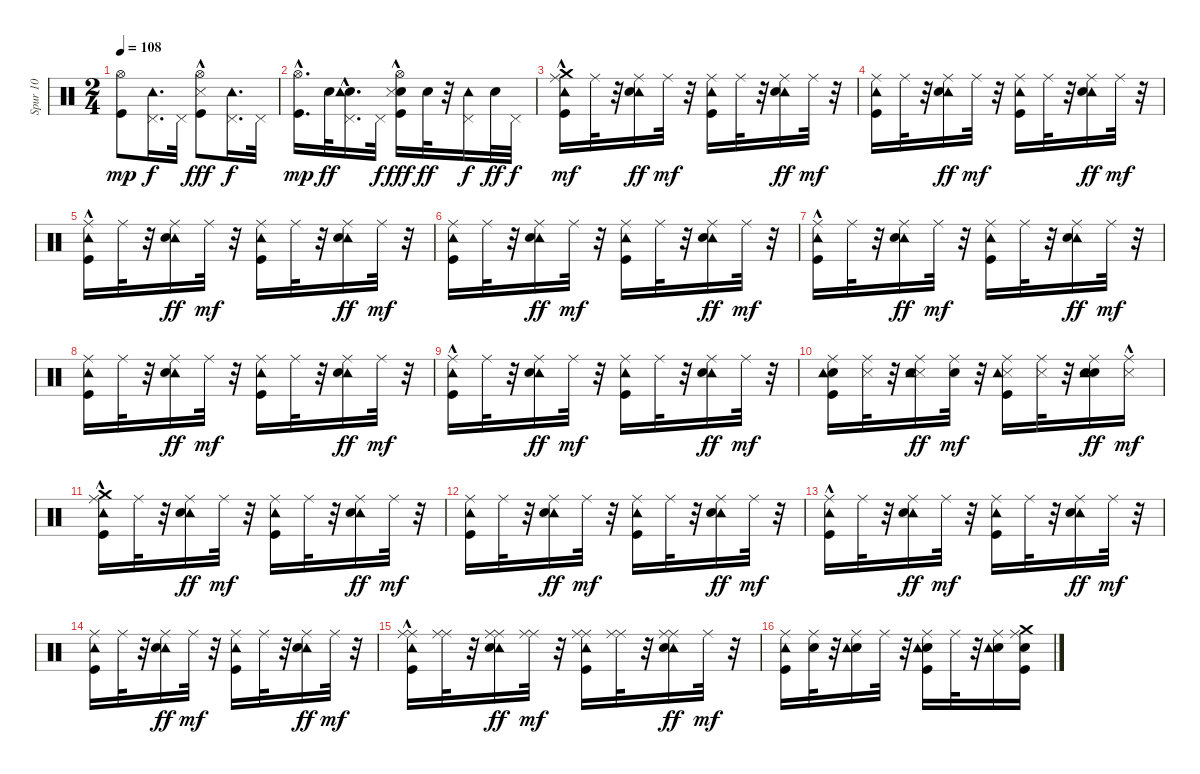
\track ("Spur 10" "Spur 10") {instrument percussion}
\staff {score}
\articulation defaults
\ts (2 4)
\tempo 108
\clef neutral
\ks c
("Hi-Hat (open)" "Kick (hit)").8{dy mp} ("Tambourine (hit)" "Pedal Hi-Hat (hit)").16{d dy f} "Pedal Hi-Hat (hit)".32 ("Hi-Hat (open)"{hac} "Kick (hit)" "Snare (side stick) 3"{hac}).8{dy fff} ("Tambourine (hit)" "Pedal Hi-Hat (hit)").16{d dy f} "Pedal Hi-Hat (hit)".32 |
("Hi-Hat (open)"{hac} "Kick (hit)").16{d dy mp} "Electric Snare (hit)".32{dy ff} ("Electric Snare (hit)"{hac} "Tambourine (hit)" "Pedal Hi-Hat (hit)").16{d} "Pedal Hi-Hat (hit)".32{dy f} ("Electric Snare (hit)" "Hi-Hat (open)" "Kick (hit)" "Snare (side stick) 3"{hac}).16{dy fff} "Electric Snare (hit)".32{dy ff} r.32 ("Tambourine (hit)" "Pedal Hi-Hat (hit)").16{dy f} "Electric Snare (hit)".32{dy ff} "Pedal Hi-Hat (hit)".32{dy f} |
("Crash medium (hit)" "Tambourine (hit)" "Ride (middle)" "Kick (hit)"{hac}).16{dy mf} "Ride (middle)".32 r.32 ("Tambourine (hit)" "Ride (middle)" "Electric Snare (hit)").16{dy ff} "Ride (middle)".32{dy mf} r.32 ("Tambourine (hit)" "Ride (middle)" "Kick (hit)").16 "Ride (middle)".32 r.32 ("Tambourine (hit)" "Ride (middle)" "Electric Snare (hit)").16{dy ff} "Ride (middle)".32{dy mf} r.32 |
("Tambourine (hit)" "Ride (middle)" "Kick (hit)").16 "Ride (middle)".32 r.32 ("Tambourine (hit)" "Ride (middle)" "Electric Snare (hit)").16{dy ff} "Ride (middle)".32{dy mf} r.32 ("Tambourine (hit)" "Ride (middle)" "Kick (hit)").16 "Ride (middle)".32 r.32 ("Tambourine (hit)" "Ride (middle)" "Electric Snare (hit)").16{dy ff} "Ride (middle)".32{dy mf} r.32 |
("Tambourine (hit)" "Ride (middle)" "Kick (hit)"{hac}).16 "Ride (middle)".32 r.32 ("Tambourine (hit)" "Ride (middle)" "Electric Snare (hit)").16{dy ff} "Ride (middle)".32{dy mf} r.32 ("Tambourine (hit)" "Ride (middle)" "Kick (hit)").16 "Ride (middle)".32 r.32 ("Tambourine (hit)" "Ride (middle)" "Electric Snare (hit)").16{dy ff} "Ride (middle)".32{dy mf} r.32 |
("Tambourine (hit)" "Ride (middle)" "Kick (hit)").16 "Ride (middle)".32 r.32 ("Tambourine (hit)" "Ride (middle)" "Electric Snare (hit)").16{dy ff} "Ride (middle)".32{dy mf} r.32 ("Tambourine (hit)" "Ride (middle)" "Kick (hit)").16 "Ride (middle)".32 r.32 ("Tambourine (hit)" "Ride (middle)" "Electric Snare (hit)").16{dy ff} "Ride (middle)".32{dy mf} r.32 |
("Tambourine (hit)" "Ride (middle)" "Kick (hit)"{hac}).16 "Ride (middle)".32 r.32 ("Tambourine (hit)" "Ride (middle)" "Electric Snare (hit)").16{dy ff} "Ride (middle)".32{dy mf} r.32 ("Tambourine (hit)" "Ride (middle)" "Kick (hit)").16 "Ride (middle)".32 r.32 ("Tambourine (hit)" "Ride (middle)" "Electric Snare (hit)").16{dy ff} "Ride (middle)".32{dy mf} r.32 |
("Tambourine (hit)" "Ride (middle)" "Kick (hit)").16 "Ride (middle)".32 r.32 ("Tambourine (hit)" "Ride (middle)" "Electric Snare (hit)").16{dy ff} "Ride (middle)".32{dy mf} r.32 ("Tambourine (hit)" "Ride (middle)" "Kick (hit)").16 "Ride (middle)".32 r.32 ("Tambourine (hit)" "Ride (middle)" "Electric Snare (hit)").16{dy ff} "Ride (middle)".32{dy mf} r.32 |
("Tambourine (hit)" "Ride (middle)" "Kick (hit)"{hac}).16 "Ride (middle)".32 r.32 ("Tambourine (hit)" "Ride (middle)" "Electric Snare (hit)").16{dy ff} "Ride (middle)".32{dy mf} r.32 ("Tambourine (hit)" "Ride (middle)" "Kick (hit)").16 "Ride (middle)".32 r.32 ("Tambourine (hit)" "Ride (middle)" "Electric Snare (hit)").16{dy ff} "Ride (middle)".32{dy mf} r.32 |
("Electric Snare (hit)" "Tambourine (hit)" "Ride (middle)" "Kick (hit)").16 ("Snare (side stick) 3" "Ride (middle)").32 r.32 ("Snare (side stick) 3" "Tambourine (hit)" "Ride (middle)" "Electric Snare (hit)").16{dy ff} ("Electric Snare (hit)" "Ride (middle)").32{dy mf} r.32 ("Snare (side stick) 3" "Tambourine (hit)" "Ride (middle)" "Kick (hit)").16 ("Snare (side stick) 3" "Ride (middle)").32 r.32 ("Electric Snare (hit)" "Tambourine (hit)" "Ride (middle)" "Electric Snare (hit)").16{dy ff} ("Snare (side stick) 3"{hac} "Ride (middle)").16{dy mf} |
("Crash medium (hit)" "Tambourine (hit)" "Ride (middle)" "Kick (hit)"{hac}).16 "Ride (middle)".32 r.32 ("Tambourine (hit)" "Ride (middle)" "Electric Snare (hit)").16{dy ff} "Ride (middle)".32{dy mf} r.32 ("Tambourine (hit)" "Ride (middle)" "Kick (hit)").16 "Ride (middle)".32 r.32 ("Tambourine (hit)" "Ride (middle)" "Electric Snare (hit)").16{dy ff} "Ride (middle)".32{dy mf} r.32 |
("Tambourine (hit)" "Ride (middle)" "Kick (hit)").16 "Ride (middle)".32 r.32 ("Tambourine (hit)" "Ride (middle)" "Electric Snare (hit)").16{dy ff} "Ride (middle)".32{dy mf} r.32 ("Tambourine (hit)" "Ride (middle)" "Kick (hit)").16 "Ride (middle)".32 r.32 ("Tambourine (hit)" "Ride (middle)" "Electric Snare (hit)").16{dy ff} "Ride (middle)".32{dy mf} r.32 |
("Tambourine (hit)" "Ride (middle)" "Kick (hit)"{hac}).16 "Ride (middle)".32 r.32 ("Tambourine (hit)" "Ride (middle)" "Electric Snare (hit)").16{dy ff} "Ride (middle)".32{dy mf} r.32 ("Tambourine (hit)" "Ride (middle)" "Kick (hit)").16 "Ride (middle)".32 r.32 ("Tambourine (hit)" "Ride (middle)" "Electric Snare (hit)").16{dy ff} "Ride (middle)".32{dy mf} r.32 |
("Tambourine (hit)" "Ride (middle)" "Kick (hit)").16 "Ride (middle)".32 r.32 ("Tambourine (hit)" "Ride (middle)" "Electric Snare (hit)").16{dy ff} "Ride (middle)".32{dy mf} r.32 ("Tambourine (hit)" "Ride (middle)" "Kick (hit)").16 "Ride (middle)".32 r.32 ("Tambourine (hit)" "Ride (middle)" "Electric Snare (hit)").16{dy ff} "Ride (middle)".32{dy mf} r.32 |
("Ride (middle)" "Tambourine (hit)" "Ride (middle)" "Kick (hit)"{hac}).16 ("Ride (middle)" "Ride (middle)").32 r.32 ("Ride (middle)" "Tambourine (hit)" "Ride (middle)" "Electric Snare (hit)").16{dy ff} ("Ride (middle)" "Ride (middle)").32{dy mf} r.32 ("Ride (middle)" "Tambourine (hit)" "Ride (middle)" "Kick (hit)").16 ("Ride (middle)" "Ride (middle)").32 r.32 ("Ride (middle)" "Tambourine (hit)" "Ride (middle)" "Electric Snare (hit)").16{dy ff} "Ride (middle)".32{dy mf} r.32 |
("Tambourine (hit)" "Ride (middle)" "Kick (hit)").16 ("Electric Snare (hit)" "Ride (middle)").32 r.32 ("Electric Snare (hit)" "Tambourine (hit)" "Ride (middle)").16 "Ride (middle)".32 r.32 ("Electric Snare (hit)" "Tambourine (hit)" "Ride (middle)" "Kick (hit)").16 "Ride (middle)".32 r.32 ("Electric Snare (hit)" "Tambourine (hit)" "Ride (middle)").16 ("Kick (hit)" "Electric Snare (hit)" "Crash medium (hit)" "Ride (middle)").16
